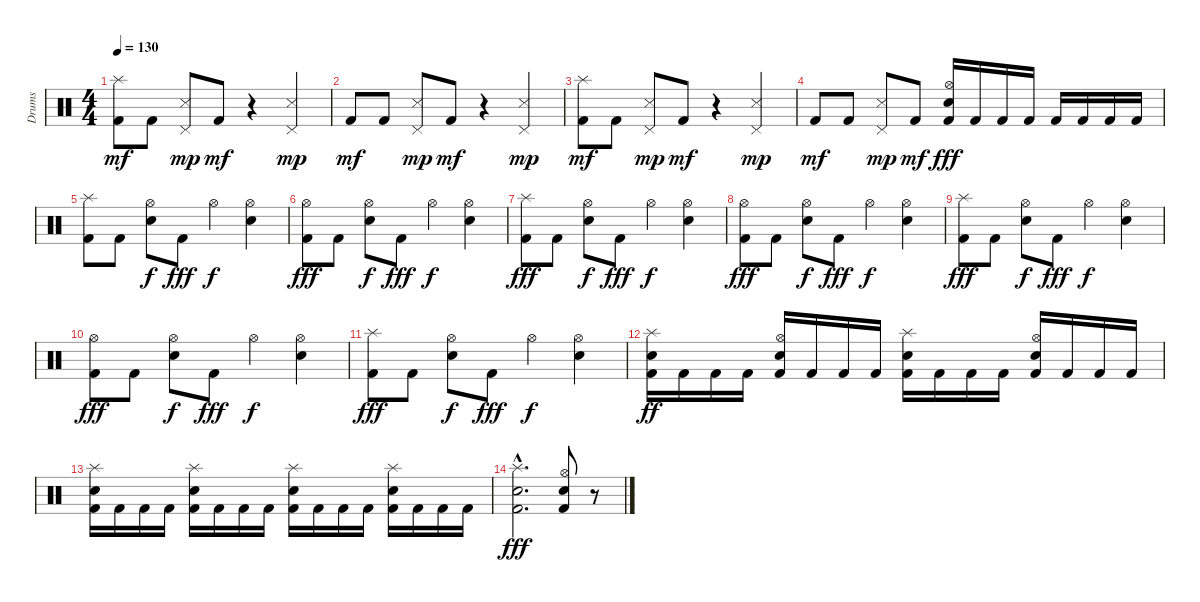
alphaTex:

\track ("Drums" "Drums") {instrument percussion}
\staff {score}
\articulation defaults
\ts (4 4)
\tempo 130
\clef neutral
\ks c
("Splash (hit)" "Kick (hit) 2").8{dy mf} "Kick (hit) 2".8 ("Pedal Hi-Hat (hit)" "Snare (side stick) 3").8{dy mp} "Kick (hit) 2".8{dy mf} r.4 ("Pedal Hi-Hat (hit)" "Snare (side stick) 3").4{dy mp} |
"Kick (hit) 2".8{dy mf} "Kick (hit) 2".8 ("Pedal Hi-Hat (hit)" "Snare (side stick) 3").8{dy mp} "Kick (hit) 2".8{dy mf} r.4 ("Pedal Hi-Hat (hit)" "Snare (side stick) 3").4{dy mp} |
("Splash (hit)" "Kick (hit) 2").8{dy mf} "Kick (hit) 2".8 ("Pedal Hi-Hat (hit)" "Snare (side stick) 3").8{dy mp} "Kick (hit) 2".8{dy mf} r.4 ("Pedal Hi-Hat (hit)" "Snare (side stick) 3").4{dy mp} |
"Kick (hit) 2".8{dy mf} "Kick (hit) 2".8 ("Pedal Hi-Hat (hit)" "Snare (side stick) 3").8{dy mp} "Kick (hit) 2".8{dy mf} ("Hi-Hat (open)" "Snare (hit) 2" "Kick (hit) 2").16{dy fff} "Kick (hit) 2".16 "Kick (hit) 2".16 "Kick (hit) 2".16 "Kick (hit) 2".16 "Kick (hit) 2".16 "Kick (hit) 2".16 "Kick (hit) 2".16 |
("Splash (hit)" "Kick (hit) 2").8 "Kick (hit) 2".8 ("Hi-Hat (open)" "Snare (hit) 2").8{dy f} "Kick (hit) 2".8{dy fff} "Hi-Hat (open)".4{dy f} ("Hi-Hat (open)" "Snare (hit) 2").4 |
("Hi-Hat (open)" "Kick (hit) 2").8{dy fff} "Kick (hit) 2".8 ("Hi-Hat (open)" "Snare (hit) 2").8{dy f} "Kick (hit) 2".8{dy fff} "Hi-Hat (open)".4{dy f} ("Hi-Hat (open)" "Snare (hit) 2").4 |
("Splash (hit)" "Kick (hit) 2").8{dy fff} "Kick (hit) 2".8 ("Hi-Hat (open)" "Snare (hit) 2").8{dy f} "Kick (hit) 2".8{dy fff} "Hi-Hat (open)".4{dy f} ("Hi-Hat (open)" "Snare (hit) 2").4 |
("Hi-Hat (open)" "Kick (hit) 2").8{dy fff} "Kick (hit) 2".8 ("Hi-Hat (open)" "Snare (hit) 2").8{dy f} "Kick (hit) 2".8{dy fff} "Hi-Hat (open)".4{dy f} ("Hi-Hat (open)" "Snare (hit) 2").4 |
("Splash (hit)" "Kick (hit) 2").8{dy fff} "Kick (hit) 2".8 ("Hi-Hat (open)" "Snare (hit) 2").8{dy f} "Kick (hit) 2".8{dy fff} "Hi-Hat (open)".4{dy f} ("Hi-Hat (open)" "Snare (hit) 2").4 |
("Hi-Hat (open)" "Kick (hit) 2").8{dy fff} "Kick (hit) 2".8 ("Hi-Hat (open)" "Snare (hit) 2").8{dy f} "Kick (hit) 2".8{dy fff} "Hi-Hat (open)".4{dy f} ("Hi-Hat (open)" "Snare (hit) 2").4 |
("Splash (hit)" "Kick (hit) 2").8{dy fff} "Kick (hit) 2".8 ("Hi-Hat (open)" "Snare (hit) 2").8{dy f} "Kick (hit) 2".8{dy fff} "Hi-Hat (open)".4{dy f} ("Hi-Hat (open)" "Snare (hit) 2").4 |
("Splash (hit)" "Snare (hit) 2" "Kick (hit) 2").16{dy ff} "Kick (hit) 2".16 "Kick (hit) 2".16 "Kick (hit) 2".16 ("Hi-Hat (open)" "Snare (hit) 2" "Kick (hit) 2").16 "Kick (hit) 2".16 "Kick (hit) 2".16 "Kick (hit) 2".16 ("Splash (hit)" "Snare (hit) 2" "Kick (hit) 2").16 "Kick (hit) 2".16 "Kick (hit) 2".16 "Kick (hit) 2".16 ("Hi-Hat (open)" "Snare (hit) 2" "Kick (hit) 2").16 "Kick (hit) 2".16 "Kick (hit) 2".16 "Kick (hit) 2".16 |
("Splash (hit)" "Snare (hit) 2" "Kick (hit) 2").16 "Kick (hit) 2".16 "Kick (hit) 2".16 "Kick (hit) 2".16 ("Splash (hit)" "Snare (hit) 2" "Kick (hit) 2").16 "Kick (hit) 2".16 "Kick (hit) 2".16 "Kick (hit) 2".16 ("Splash (hit)" "Snare (hit) 2" "Kick (hit) 2").16 "Kick (hit) 2".16 "Kick (hit) 2".16 "Kick (hit) 2".16 ("Splash (hit)" "Snare (hit) 2" "Kick (hit) 2").16 "Kick (hit) 2".16 "Kick (hit) 2".16 "Kick (hit) 2".16 |
("Splash (hit)"{hac} "Snare (hit) 2"{hac} "Kick (hit) 2"{hac}).2{d dy fff} ("Hi-Hat (open)" "Snare (hit) 2" "Kick (hit) 2").8 r.8
